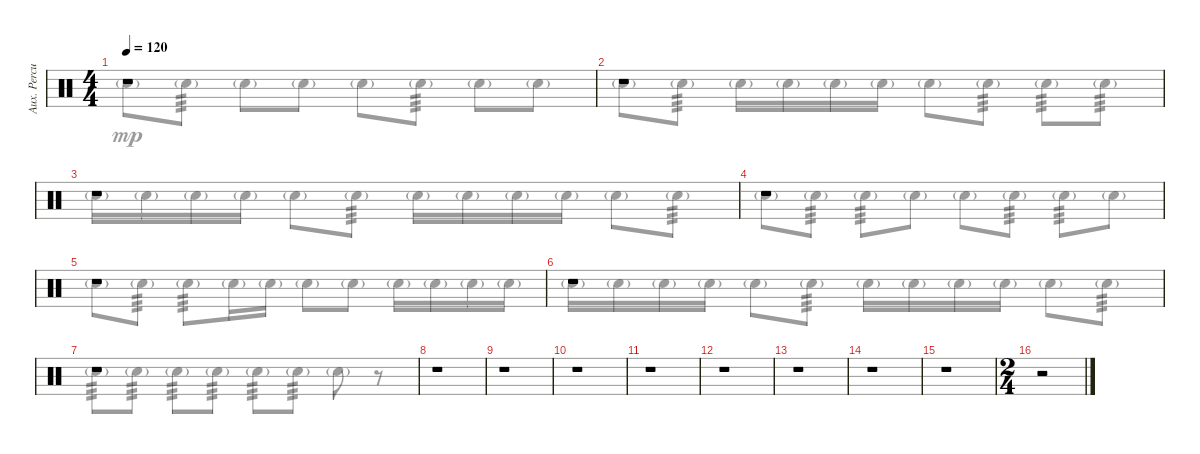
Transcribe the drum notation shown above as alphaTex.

\track ("Aux. Percussion" "Aux. Percu") {instrument percussion}
\staff {score}
\articulation defaults
\voice
\ts (4 4)
\tempo 120
\clef neutral
\ks c
r.1{dy pp} |
r.1 |
r.1 |
r.1 |
r.1 |
r.1 |
r.1 |
r.1 |
r.1 |
r.1 |
r.1 |
r.1 |
r.1 |
r.1 |
r.1 |
\ts (2 4)
r.2
\voice
\clef neutral
\ottava regular
\simile none
\ks c "Snare (hit) 2"{g}.8{dy mp} "Snare (hit) 2"{g}.8{tp 3} "Snare (hit) 2"{g}.8 "Snare (hit) 2"{g}.8 "Snare (hit) 2"{g}.8 "Snare (hit) 2"{g}.8{tp 3} "Snare (hit) 2"{g}.8 "Snare (hit) 2"{g}.8
|
"Snare (hit) 2"{g}.8 "Snare (hit) 2"{g}.8{tp 3} "Snare (hit) 2"{g}.16 "Snare (hit) 2"{g}.16 "Snare (hit) 2"{g}.16 "Snare (hit) 2"{g}.16 "Snare (hit) 2"{g}.8 "Snare (hit) 2"{g}.8{tp 3} "Snare (hit) 2"{g}.8{tp 3} "Snare (hit) 2"{g}.8{tp 3} |
"Snare (hit) 2"{g}.16 "Snare (hit) 2"{g}.16 "Snare (hit) 2"{g}.16 "Snare (hit) 2"{g}.16 "Snare (hit) 2"{g}.8 "Snare (hit) 2"{g}.8{tp 3} "Snare (hit) 2"{g}.16 "Snare (hit) 2"{g}.16 "Snare (hit) 2"{g}.16 "Snare (hit) 2"{g}.16 "Snare (hit) 2"{g}.8 "Snare (hit) 2"{g}.8{tp 3} |
"Snare (hit) 2"{g}.8 "Snare (hit) 2"{g}.8{tp 3} "Snare (hit) 2"{g}.8{tp 3} "Snare (hit) 2"{g}.8 "Snare (hit) 2"{g}.8 "Snare (hit) 2"{g}.8{tp 3} "Snare (hit) 2"{g}.8{tp 3} "Snare (hit) 2"{g}.8 |
"Snare (hit) 2"{g}.8 "Snare (hit) 2"{g}.8{tp 3} "Snare (hit) 2"{g}.8{tp 3} "Snare (hit) 2"{g}.16 "Snare (hit) 2"{g}.16 "Snare (hit) 2"{g}.8 "Snare (hit) 2"{g}.8 "Snare (hit) 2"{g}.16 "Snare (hit) 2"{g}.16 "Snare (hit) 2"{g}.16 "Snare (hit) 2"{g}.16 |
"Snare (hit) 2"{g}.16 "Snare (hit) 2"{g}.16 "Snare (hit) 2"{g}.16 "Snare (hit) 2"{g}.16 "Snare (hit) 2"{g}.8 "Snare (hit) 2"{g}.8{tp 3} "Snare (hit) 2"{g}.16 "Snare (hit) 2"{g}.16 "Snare (hit) 2"{g}.16 "Snare (hit) 2"{g}.16 "Snare (hit) 2"{g}.8 "Snare (hit) 2"{g}.8{tp 3} |
"Snare (hit) 2"{g}.8{tp 3} "Snare (hit) 2"{g}.8{tp 3} "Snare (hit) 2"{g}.8{tp 3} "Snare (hit) 2"{g}.8{tp 3} "Snare (hit) 2"{g}.8{tp 3} "Snare (hit) 2"{g}.8{tp 3} "Snare (hit) 2"{g}.8 r.8 |
|
|
|
|
|
|
|
|
